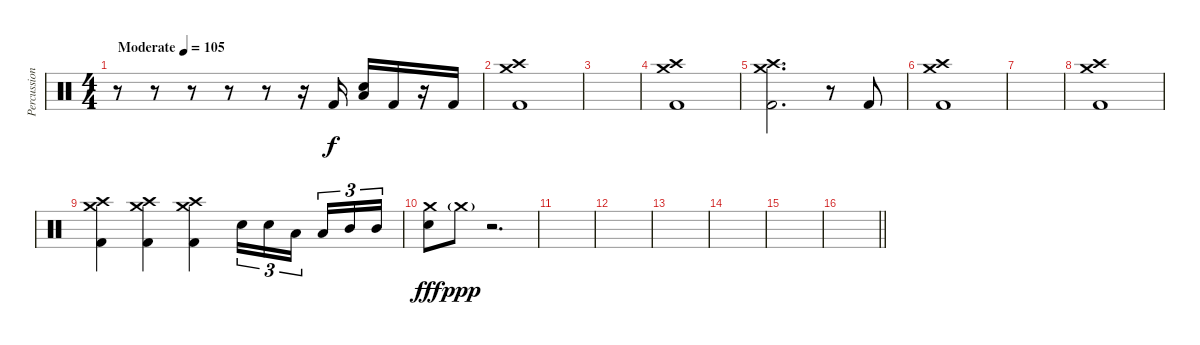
\track ("Percussion" "Percussion") {instrument percussion}
\staff {score}
\articulation defaults
\ts (4 4)
\tempo (105 "Moderate")
\clef neutral
\ks c
r.8{dy f} r.8 r.8 r.8 r.8 r.16 "Kick (hit) 2".16 ("Low Floor Tom (hit)" "Electric Snare (hit)").16 "Kick (hit) 2".16 r.16 "Kick (hit) 2".16 |
("Crash high (hit)" "Crash medium (hit)" "Kick (hit) 2").1 |
|
("Crash high (hit)" "Crash medium (hit)" "Kick (hit) 2").1 |
("Crash high (hit)" "Crash medium (hit)" "Kick (hit) 2").2{d} r.8 "Kick (hit) 2".8 |
("Crash high (hit)" "Crash medium (hit)" "Kick (hit) 2").1 |
|
("Crash high (hit)" "Crash medium (hit)" "Kick (hit) 2").1 |
("Crash high (hit)" "Crash medium (hit)" "Kick (hit) 2").4 ("Crash high (hit)" "Crash medium (hit)" "Kick (hit) 2").4 ("Crash high (hit)" "Crash medium (hit)" "Kick (hit) 2").4 "Electric Snare (hit)".16{tu (3 2)} "Electric Snare (hit)".16{tu (3 2)} "Low Tom (hit)".16{tu (3 2) beam splitsecondary} "Low Tom (hit)".16{tu (3 2)} "Mid Tom (hit)".16{tu (3 2)} "Mid Tom (hit)".16{tu (3 2)} |
("Crash medium (hit)" "Electric Snare (hit)").8{dy fff} "Crash medium (hit)"{g}.8{dy ppp} r.2{d} |
|
|
|
|
|
\barLineRight lightlight
